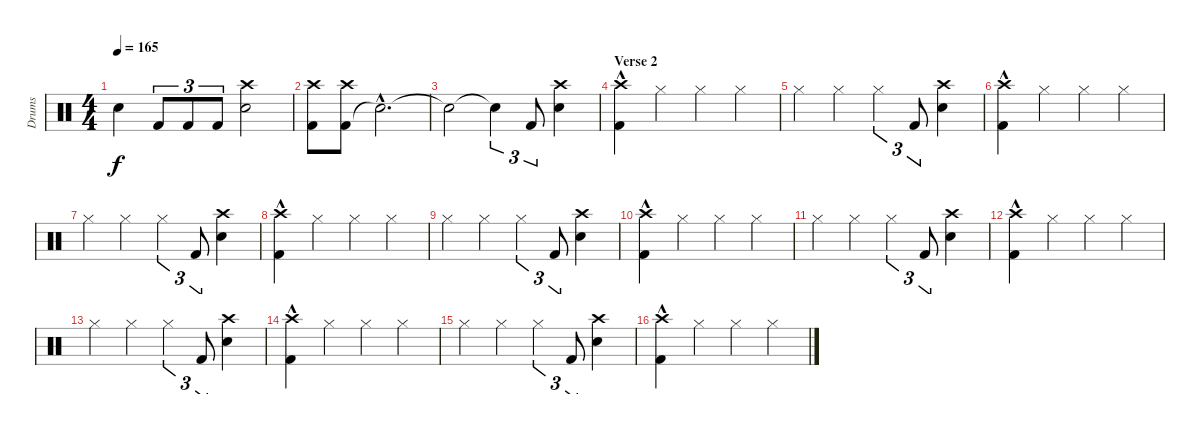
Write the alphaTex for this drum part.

\track ("Drums" "Drums") {instrument percussion}
\staff {score}
\articulation defaults
\ts (4 4)
\tempo 165
\clef neutral
\ks c "Snare (hit)"{t}.4{dy f} "Kick (hit) 2".8{tu (3 2)} "Kick (hit) 2".8{tu (3 2)} "Kick (hit) 2".8{tu (3 2)}
("Snare (hit) 2" "Crash high (hit)").2 |
("Kick (hit) 2" "Crash high (hit)").8 ("Kick (hit) 2" "Crash high (hit)").8 "Snare (hit)"{hac t}.2{d} |
"Snare (hit)"{t}.2 "Snare (hit)"{t}.4{tu (3 2)} "Kick (hit) 2".8{tu (3 2)} ("Snare (hit) 2" "Crash high (hit)").4 |
\section ("" "Verse 2")
("Kick (hit) 2" "Crash high (hit)"{hac}).4 "Hi-Hat (closed)".4 "Hi-Hat (closed)".4 "Hi-Hat (closed)".4 |
"Hi-Hat (closed)".4 "Hi-Hat (closed)".4 "Hi-Hat (closed)".4{tu (3 2)} "Kick (hit) 2".8{tu (3 2)} ("Snare (hit) 2" "Crash high (hit)").4 |
("Kick (hit) 2" "Crash high (hit)"{hac}).4 "Hi-Hat (closed)".4 "Hi-Hat (closed)".4 "Hi-Hat (closed)".4 |
"Hi-Hat (closed)".4 "Hi-Hat (closed)".4 "Hi-Hat (closed)".4{tu (3 2)} "Kick (hit) 2".8{tu (3 2)} ("Snare (hit) 2" "Crash high (hit)").4 |
("Kick (hit) 2" "Crash high (hit)"{hac}).4 "Hi-Hat (closed)".4 "Hi-Hat (closed)".4 "Hi-Hat (closed)".4 |
"Hi-Hat (closed)".4 "Hi-Hat (closed)".4 "Hi-Hat (closed)".4{tu (3 2)} "Kick (hit) 2".8{tu (3 2)} ("Snare (hit) 2" "Crash high (hit)").4 |
("Kick (hit) 2" "Crash high (hit)"{hac}).4 "Hi-Hat (closed)".4 "Hi-Hat (closed)".4 "Hi-Hat (closed)".4 |
"Hi-Hat (closed)".4 "Hi-Hat (closed)".4 "Hi-Hat (closed)".4{tu (3 2)} "Kick (hit) 2".8{tu (3 2)} ("Snare (hit) 2" "Crash high (hit)").4 |
("Kick (hit) 2" "Crash high (hit)"{hac}).4 "Hi-Hat (closed)".4 "Hi-Hat (closed)".4 "Hi-Hat (closed)".4 |
"Hi-Hat (closed)".4 "Hi-Hat (closed)".4 "Hi-Hat (closed)".4{tu (3 2)} "Kick (hit) 2".8{tu (3 2)} ("Snare (hit) 2" "Crash high (hit)").4 |
("Kick (hit) 2" "Crash high (hit)"{hac}).4 "Hi-Hat (closed)".4 "Hi-Hat (closed)".4 "Hi-Hat (closed)".4 |
"Hi-Hat (closed)".4 "Hi-Hat (closed)".4 "Hi-Hat (closed)".4{tu (3 2)} "Kick (hit) 2".8{tu (3 2)} ("Snare (hit) 2" "Crash high (hit)").4 |
("Kick (hit) 2" "Crash high (hit)"{hac}).4 "Hi-Hat (closed)".4 "Hi-Hat (closed)".4 "Hi-Hat (closed)".4
